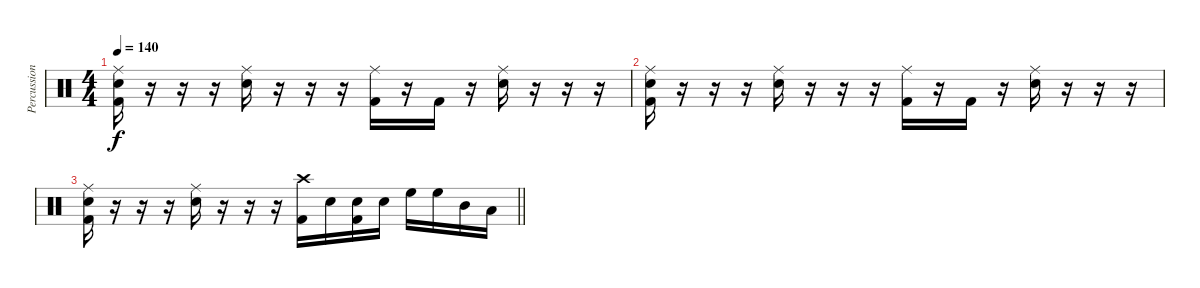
\track ("Percussion" "Percussion") {instrument percussion}
\staff {score}
\articulation defaults
\ts (4 4)
\tempo 140
\clef neutral
\ks c
("Ride (middle)" "Snare (hit) 2" "Kick (hit) 2").16{dy f} r.16 r.16 r.16 ("Ride (middle)" "Snare (hit) 2").16 r.16 r.16 r.16 ("Ride (middle)" "Kick (hit) 2").16 r.16 "Kick (hit) 2".16 r.16 ("Ride (middle)" "Snare (hit) 2").16 r.16 r.16 r.16 |
("Ride (middle)" "Snare (hit) 2" "Kick (hit) 2").16 r.16 r.16 r.16 ("Ride (middle)" "Snare (hit) 2").16 r.16 r.16 r.16 ("Ride (middle)" "Kick (hit) 2").16 r.16 "Kick (hit) 2".16 r.16 ("Ride (middle)" "Snare (hit) 2").16 r.16 r.16 r.16 |
\barLineRight lightlight
("Ride (middle)" "Snare (hit) 2" "Kick (hit) 2").16 r.16 r.16 r.16 ("Ride (middle)" "Snare (hit) 2").16 r.16 r.16 r.16 ("Crash high (hit)" "Kick (hit) 2").16 "Snare (hit) 2".16 ("Snare (hit) 2" "Kick (hit) 2").16 "Snare (hit) 2".16 "High Floor Tom (hit)".16 "High Floor Tom (hit)".16 "Mid Tom (hit)".16 "Low Tom (hit)".16
